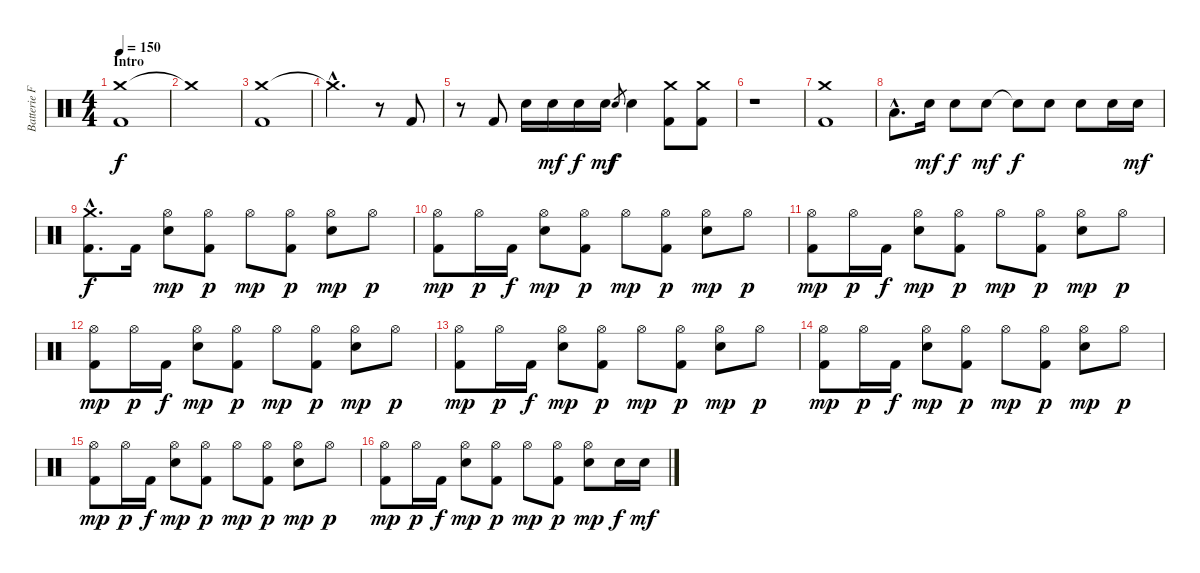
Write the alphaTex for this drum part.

\track ("Batterie Franck" "Batterie F") {instrument percussion}
\staff {score}
\articulation defaults
\ts (4 4)
\section ("" "Intro")
\tempo 150
\clef neutral
\ks c
("Crash medium (hit)" "Kick (hit) 2").1{dy f} |
"Crash medium (hit)"{t}.1 |
("Crash medium (hit)" "Kick (hit) 2").1 |
"Crash medium (hit)"{hac t}.2{d} r.8 "Kick (hit) 2".8 |
r.8 "Kick (hit) 2".8 "Snare (hit) 2".16 "Snare (hit) 2".16{dy mf} "Snare (hit) 2".16{dy f} "Snare (hit) 2".16{dy mf} "Snare (hit) 2".8{gr dy f} "Snare (hit) 2".4 ("Crash medium (hit)" "Kick (hit) 2").8 ("Crash medium (hit)" "Kick (hit) 2").8 |
r.1 |
("Crash medium (hit)" "Kick (hit) 2").1 |
"Low Tom (hit)"{hac}.8{d} "Snare (hit) 2".16{dy mf} "Snare (hit) 2".8{dy f} "Snare (hit) 2".8{dy mf} "Snare (hit) 2"{t}.8{dy f} "Snare (hit) 2".8 "Snare (hit) 2".8 "Snare (hit) 2".16 "Snare (hit) 2".16{dy mf} |
("Crash medium (hit)"{hac} "Kick (hit) 2"{hac}).8{d dy f} "Kick (hit) 2".16 ("Hi-Hat (open)" "Snare (hit) 2").8{dy mp} ("Hi-Hat (open)" "Kick (hit) 2").8{dy p} "Hi-Hat (open)".8{dy mp} ("Hi-Hat (open)" "Kick (hit) 2").8{dy p} ("Hi-Hat (open)" "Snare (hit) 2").8{dy mp} "Hi-Hat (open)".8{dy p} |
("Hi-Hat (open)" "Kick (hit) 2").8{dy mp} "Hi-Hat (open)".16{dy p} "Kick (hit) 2".16{dy f} ("Hi-Hat (open)" "Snare (hit) 2").8{dy mp} ("Hi-Hat (open)" "Kick (hit) 2").8{dy p} "Hi-Hat (open)".8{dy mp} ("Hi-Hat (open)" "Kick (hit) 2").8{dy p} ("Hi-Hat (open)" "Snare (hit) 2").8{dy mp} "Hi-Hat (open)".8{dy p} |
("Hi-Hat (open)" "Kick (hit) 2").8{dy mp} "Hi-Hat (open)".16{dy p} "Kick (hit) 2".16{dy f} ("Hi-Hat (open)" "Snare (hit) 2").8{dy mp} ("Hi-Hat (open)" "Kick (hit) 2").8{dy p} "Hi-Hat (open)".8{dy mp} ("Hi-Hat (open)" "Kick (hit) 2").8{dy p} ("Hi-Hat (open)" "Snare (hit) 2").8{dy mp} "Hi-Hat (open)".8{dy p} |
("Hi-Hat (open)" "Kick (hit) 2").8{dy mp} "Hi-Hat (open)".16{dy p} "Kick (hit) 2".16{dy f} ("Hi-Hat (open)" "Snare (hit) 2").8{dy mp} ("Hi-Hat (open)" "Kick (hit) 2").8{dy p} "Hi-Hat (open)".8{dy mp} ("Hi-Hat (open)" "Kick (hit) 2").8{dy p} ("Hi-Hat (open)" "Snare (hit) 2").8{dy mp} "Hi-Hat (open)".8{dy p} |
("Hi-Hat (open)" "Kick (hit) 2").8{dy mp} "Hi-Hat (open)".16{dy p} "Kick (hit) 2".16{dy f} ("Hi-Hat (open)" "Snare (hit) 2").8{dy mp} ("Hi-Hat (open)" "Kick (hit) 2").8{dy p} "Hi-Hat (open)".8{dy mp} ("Hi-Hat (open)" "Kick (hit) 2").8{dy p} ("Hi-Hat (open)" "Snare (hit) 2").8{dy mp} "Hi-Hat (open)".8{dy p} |
("Hi-Hat (open)" "Kick (hit) 2").8{dy mp} "Hi-Hat (open)".16{dy p} "Kick (hit) 2".16{dy f} ("Hi-Hat (open)" "Snare (hit) 2").8{dy mp} ("Hi-Hat (open)" "Kick (hit) 2").8{dy p} "Hi-Hat (open)".8{dy mp} ("Hi-Hat (open)" "Kick (hit) 2").8{dy p} ("Hi-Hat (open)" "Snare (hit) 2").8{dy mp} "Hi-Hat (open)".8{dy p} |
("Hi-Hat (open)" "Kick (hit) 2").8{dy mp} "Hi-Hat (open)".16{dy p} "Kick (hit) 2".16{dy f} ("Hi-Hat (open)" "Snare (hit) 2").8{dy mp} ("Hi-Hat (open)" "Kick (hit) 2").8{dy p} "Hi-Hat (open)".8{dy mp} ("Hi-Hat (open)" "Kick (hit) 2").8{dy p} ("Hi-Hat (open)" "Snare (hit) 2").8{dy mp} "Hi-Hat (open)".8{dy p} |
("Hi-Hat (open)" "Kick (hit) 2").8{dy mp} "Hi-Hat (open)".16{dy p} "Kick (hit) 2".16{dy f} ("Hi-Hat (open)" "Snare (hit) 2").8{dy mp} ("Hi-Hat (open)" "Kick (hit) 2").8{dy p} "Hi-Hat (open)".8{dy mp} ("Hi-Hat (open)" "Kick (hit) 2").8{dy p} ("Hi-Hat (open)" "Snare (hit) 2").8{dy mp} "Snare (hit) 2".16{dy f} "Snare (hit) 2".16{dy mf}
